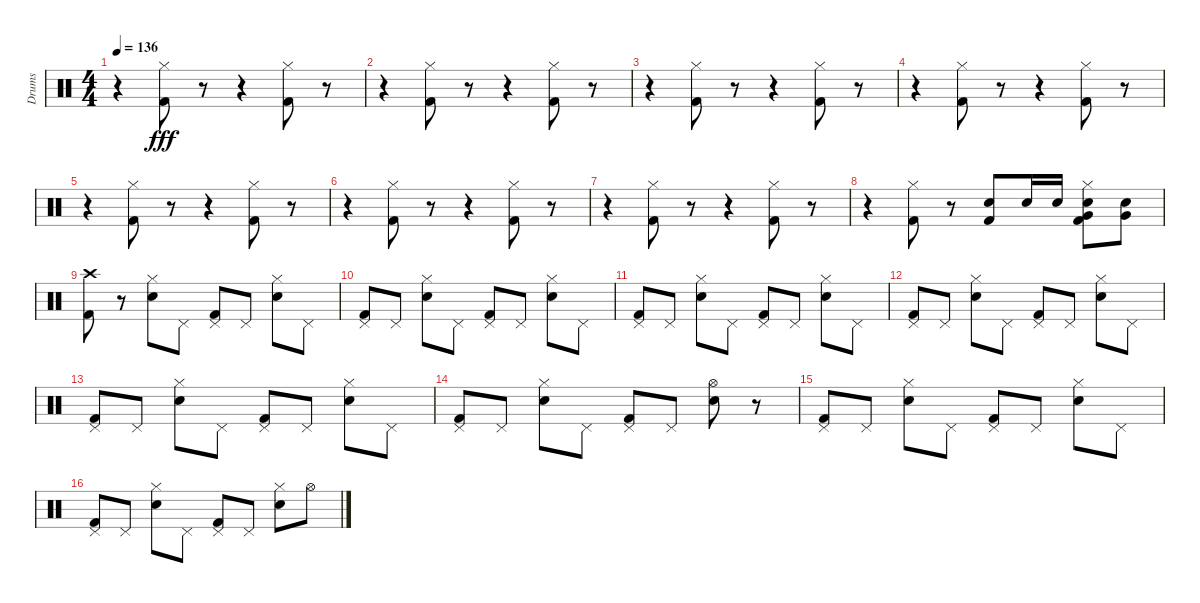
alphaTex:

\track ("Drums" "Drums") {instrument percussion}
\staff {score}
\articulation defaults
\ts (4 4)
\tempo 136
\clef neutral
\ks c
r.4{dy fff} ("Hi-Hat (closed)" "Kick (hit) 2").8 r.8 r.4 ("Hi-Hat (closed)" "Kick (hit) 2").8 r.8 |
r.4 ("Hi-Hat (closed)" "Kick (hit) 2").8 r.8 r.4 ("Hi-Hat (closed)" "Kick (hit) 2").8 r.8 |
r.4 ("Hi-Hat (closed)" "Kick (hit) 2").8 r.8 r.4 ("Hi-Hat (closed)" "Kick (hit) 2").8 r.8 |
r.4 ("Hi-Hat (closed)" "Kick (hit) 2").8 r.8 r.4 ("Hi-Hat (closed)" "Kick (hit) 2").8 r.8 |
r.4 ("Hi-Hat (closed)" "Kick (hit) 2").8 r.8 r.4 ("Hi-Hat (closed)" "Kick (hit) 2").8 r.8 |
r.4 ("Hi-Hat (closed)" "Kick (hit) 2").8 r.8 r.4 ("Hi-Hat (closed)" "Kick (hit) 2").8 r.8 |
r.4 ("Hi-Hat (closed)" "Kick (hit) 2").8 r.8 r.4 ("Hi-Hat (closed)" "Kick (hit) 2").8 r.8 |
r.4 ("Hi-Hat (closed)" "Kick (hit) 2").8 r.8 ("Snare (hit) 2" "Kick (hit) 2").8 "Snare (hit) 2".16 "Snare (hit) 2".16 ("Very Low Tom (hit)" "Hi-Hat (closed)" "Snare (hit) 2" "Kick (hit) 2").8 ("Very Low Tom (hit)" "Snare (hit) 2").8 |
("Crash high (hit)" "Kick (hit) 2").8 r.8 ("Hi-Hat (closed)" "Snare (hit) 2").8 "Pedal Hi-Hat (hit)".8 ("Pedal Hi-Hat (hit)" "Kick (hit) 2").8 "Pedal Hi-Hat (hit)".8 ("Hi-Hat (closed)" "Snare (hit) 2").8 "Pedal Hi-Hat (hit)".8 |
("Pedal Hi-Hat (hit)" "Kick (hit) 2").8 "Pedal Hi-Hat (hit)".8 ("Hi-Hat (closed)" "Snare (hit) 2").8 "Pedal Hi-Hat (hit)".8 ("Pedal Hi-Hat (hit)" "Kick (hit) 2").8 "Pedal Hi-Hat (hit)".8 ("Hi-Hat (closed)" "Snare (hit) 2").8 "Pedal Hi-Hat (hit)".8 |
("Pedal Hi-Hat (hit)" "Kick (hit) 2").8 "Pedal Hi-Hat (hit)".8 ("Hi-Hat (closed)" "Snare (hit) 2").8 "Pedal Hi-Hat (hit)".8 ("Pedal Hi-Hat (hit)" "Kick (hit) 2").8 "Pedal Hi-Hat (hit)".8 ("Hi-Hat (closed)" "Snare (hit) 2").8 "Pedal Hi-Hat (hit)".8 |
("Pedal Hi-Hat (hit)" "Kick (hit) 2").8 "Pedal Hi-Hat (hit)".8 ("Hi-Hat (closed)" "Snare (hit) 2").8 "Pedal Hi-Hat (hit)".8 ("Pedal Hi-Hat (hit)" "Kick (hit) 2").8 "Pedal Hi-Hat (hit)".8 ("Hi-Hat (closed)" "Snare (hit) 2").8 "Pedal Hi-Hat (hit)".8 |
("Pedal Hi-Hat (hit)" "Kick (hit) 2").8 "Pedal Hi-Hat (hit)".8 ("Hi-Hat (closed)" "Snare (hit) 2").8 "Pedal Hi-Hat (hit)".8 ("Pedal Hi-Hat (hit)" "Kick (hit) 2").8 "Pedal Hi-Hat (hit)".8 ("Hi-Hat (closed)" "Snare (hit) 2").8 "Pedal Hi-Hat (hit)".8 |
("Pedal Hi-Hat (hit)" "Kick (hit) 2").8 "Pedal Hi-Hat (hit)".8 ("Hi-Hat (closed)" "Snare (hit) 2").8 "Pedal Hi-Hat (hit)".8 ("Pedal Hi-Hat (hit)" "Kick (hit) 2").8 "Pedal Hi-Hat (hit)".8 ("Hi-Hat (open)" "Snare (hit) 2").8 r.8 |
("Pedal Hi-Hat (hit)" "Kick (hit) 2").8 "Pedal Hi-Hat (hit)".8 ("Hi-Hat (closed)" "Snare (hit) 2").8 "Pedal Hi-Hat (hit)".8 ("Pedal Hi-Hat (hit)" "Kick (hit) 2").8 "Pedal Hi-Hat (hit)".8 ("Hi-Hat (closed)" "Snare (hit) 2").8 "Pedal Hi-Hat (hit)".8 |
("Pedal Hi-Hat (hit)" "Kick (hit) 2").8 "Pedal Hi-Hat (hit)".8 ("Hi-Hat (closed)" "Snare (hit) 2").8 "Pedal Hi-Hat (hit)".8 ("Pedal Hi-Hat (hit)" "Kick (hit) 2").8 "Pedal Hi-Hat (hit)".8 ("Hi-Hat (closed)" "Snare (hit) 2").8 "Hi-Hat (open)".8
